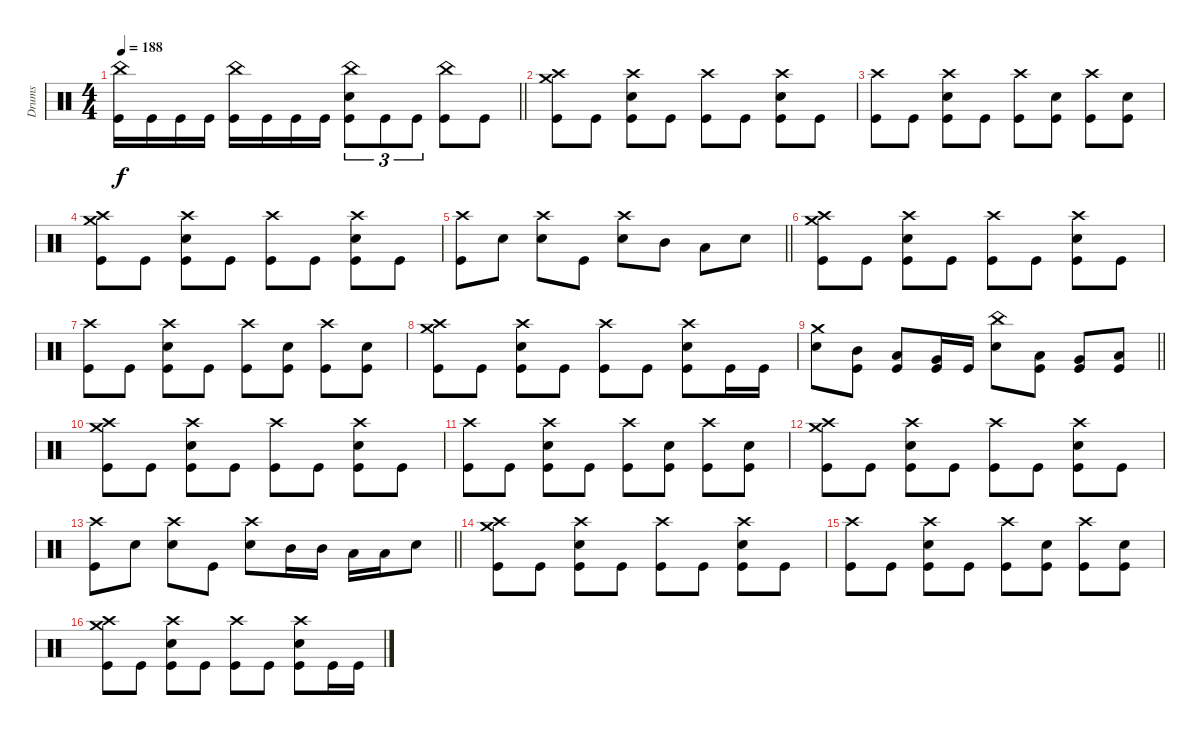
\track ("Drums" "Drums") {instrument percussion}
\staff
\articulation defaults
\ts (4 4)
\tempo 188
\clef neutral
\barLineRight lightlight
\ks c
("China (hit)" "Kick (hit)").16{dy f} "Kick (hit)".16 "Kick (hit)".16 "Kick (hit)".16 ("China (hit)" "Kick (hit)").16 "Kick (hit)".16 "Kick (hit)".16 "Kick (hit)".16 ("China (hit)" "Electric Snare (hit)" "Kick (hit)").8{tu (3 2)} "Kick (hit)".8{tu (3 2)} "Kick (hit)".8{tu (3 2)} ("China (hit)" "Kick (hit)").8 "Kick (hit)".8 |
\section ("" "")
("Crash high (hit)" "Crash medium (hit)" "Kick (hit)").8 "Kick (hit)".8 ("Crash high (hit)" "Electric Snare (hit)" "Kick (hit)").8 "Kick (hit)".8 ("Crash high (hit)" "Kick (hit)").8 "Kick (hit)".8 ("Crash high (hit)" "Electric Snare (hit)" "Kick (hit)").8 "Kick (hit)".8 |
("Crash high (hit)" "Kick (hit)").8 "Kick (hit)".8 ("Crash high (hit)" "Electric Snare (hit)" "Kick (hit)").8 "Kick (hit)".8 ("Crash high (hit)" "Kick (hit)").8 ("Electric Snare (hit)" "Kick (hit)").8 ("Crash high (hit)" "Kick (hit)").8 ("Electric Snare (hit)" "Kick (hit)").8 |
("Crash high (hit)" "Crash medium (hit)" "Kick (hit)").8 "Kick (hit)".8 ("Crash high (hit)" "Electric Snare (hit)" "Kick (hit)").8 "Kick (hit)".8 ("Crash high (hit)" "Kick (hit)").8 "Kick (hit)".8 ("Crash high (hit)" "Electric Snare (hit)" "Kick (hit)").8 "Kick (hit)".8 |
\barLineRight lightlight
("Crash high (hit)" "Kick (hit)").8 "Electric Snare (hit)".8 ("Crash high (hit)" "Electric Snare (hit)").8 "Kick (hit)".8 ("Crash high (hit)" "Electric Snare (hit)").8 "Mid Tom (hit)".8 "Low Tom (hit)".8 "Electric Snare (hit)".8 |
("Crash high (hit)" "Crash medium (hit)" "Kick (hit)").8 "Kick (hit)".8 ("Crash high (hit)" "Electric Snare (hit)" "Kick (hit)").8 "Kick (hit)".8 ("Crash high (hit)" "Kick (hit)").8 "Kick (hit)".8 ("Crash high (hit)" "Electric Snare (hit)" "Kick (hit)").8 "Kick (hit)".8 |
("Crash high (hit)" "Kick (hit)").8 "Kick (hit)".8 ("Crash high (hit)" "Electric Snare (hit)" "Kick (hit)").8 "Kick (hit)".8 ("Crash high (hit)" "Kick (hit)").8 ("Electric Snare (hit)" "Kick (hit)").8 ("Crash high (hit)" "Kick (hit)").8 ("Electric Snare (hit)" "Kick (hit)").8 |
("Crash high (hit)" "Crash medium (hit)" "Kick (hit)").8 "Kick (hit)".8 ("Crash high (hit)" "Electric Snare (hit)" "Kick (hit)").8 "Kick (hit)".8 ("Crash high (hit)" "Kick (hit)").8 "Kick (hit)".8 ("Crash high (hit)" "Electric Snare (hit)" "Kick (hit)").8 "Kick (hit)".16 "Kick (hit)".16 |
\barLineRight lightlight
("Crash medium (hit)" "Electric Snare (hit)").8 ("Mid Tom (hit)" "Kick (hit)").8 ("Low Tom (hit)" "Kick (hit)").8 ("Very Low Tom (hit)" "Kick (hit)").16 "Kick (hit)".16 ("China (hit)" "Electric Snare (hit)").8 ("Low Tom (hit)" "Kick (hit)").8 ("Very Low Tom (hit)" "Kick (hit)").8 ("Low Floor Tom (hit)" "Kick (hit)").8 |
("Crash high (hit)" "Crash medium (hit)" "Kick (hit)").8 "Kick (hit)".8 ("Crash high (hit)" "Electric Snare (hit)" "Kick (hit)").8 "Kick (hit)".8 ("Crash high (hit)" "Kick (hit)").8 "Kick (hit)".8 ("Crash high (hit)" "Electric Snare (hit)" "Kick (hit)").8 "Kick (hit)".8 |
("Crash high (hit)" "Kick (hit)").8 "Kick (hit)".8 ("Crash high (hit)" "Electric Snare (hit)" "Kick (hit)").8 "Kick (hit)".8 ("Crash high (hit)" "Kick (hit)").8 ("Electric Snare (hit)" "Kick (hit)").8 ("Crash high (hit)" "Kick (hit)").8 ("Electric Snare (hit)" "Kick (hit)").8 |
("Crash high (hit)" "Crash medium (hit)" "Kick (hit)").8 "Kick (hit)".8 ("Crash high (hit)" "Electric Snare (hit)" "Kick (hit)").8 "Kick (hit)".8 ("Crash high (hit)" "Kick (hit)").8 "Kick (hit)".8 ("Crash high (hit)" "Electric Snare (hit)" "Kick (hit)").8 "Kick (hit)".8 |
\barLineRight lightlight
("Crash high (hit)" "Kick (hit)").8 "Electric Snare (hit)".8 ("Crash high (hit)" "Electric Snare (hit)").8 "Kick (hit)".8 ("Crash high (hit)" "Electric Snare (hit)").8 "Mid Tom (hit)".16 "Mid Tom (hit)".16 "Low Tom (hit)".16 "Low Tom (hit)".16 "Electric Snare (hit)".8 |
("Crash high (hit)" "Crash medium (hit)" "Kick (hit)").8 "Kick (hit)".8 ("Crash high (hit)" "Electric Snare (hit)" "Kick (hit)").8 "Kick (hit)".8 ("Crash high (hit)" "Kick (hit)").8 "Kick (hit)".8 ("Crash high (hit)" "Electric Snare (hit)" "Kick (hit)").8 "Kick (hit)".8 |
("Crash high (hit)" "Kick (hit)").8 "Kick (hit)".8 ("Crash high (hit)" "Electric Snare (hit)" "Kick (hit)").8 "Kick (hit)".8 ("Crash high (hit)" "Kick (hit)").8 ("Electric Snare (hit)" "Kick (hit)").8 ("Crash high (hit)" "Kick (hit)").8 ("Electric Snare (hit)" "Kick (hit)").8 |
("Crash high (hit)" "Crash medium (hit)" "Kick (hit)").8 "Kick (hit)".8 ("Crash high (hit)" "Electric Snare (hit)" "Kick (hit)").8 "Kick (hit)".8 ("Crash high (hit)" "Kick (hit)").8 "Kick (hit)".8 ("Crash high (hit)" "Electric Snare (hit)" "Kick (hit)").8 "Kick (hit)".16 "Kick (hit)".16
